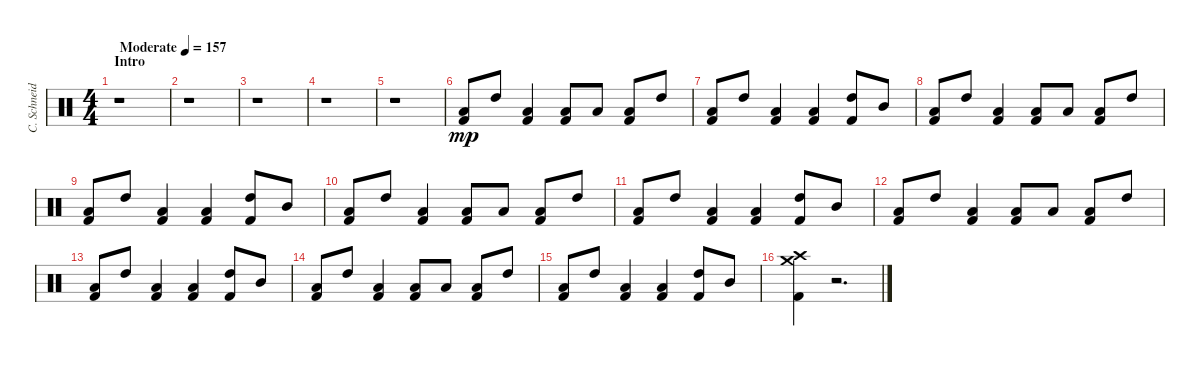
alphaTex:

\track ("C. Schneider" "C. Schneid") {instrument percussion}
\staff {score}
\articulation defaults
\ts (4 4)
\section ("" "Intro")
\tempo (157 "Moderate")
\clef neutral
\ks c
r.1{dy mp} |
r.1 |
r.1 |
r.1 |
r.1 |
("Kick (hit) 2" "Low Tom (hit)").8 "High Tom (hit)".8 ("Kick (hit) 2" "Low Tom (hit)").4 ("Kick (hit) 2" "Low Tom (hit)").8 "Low Tom (hit)".8 ("Kick (hit) 2" "Low Tom (hit)").8 "High Tom (hit)".8 |
("Kick (hit) 2" "Low Tom (hit)").8 "High Tom (hit)".8 ("Kick (hit) 2" "Low Tom (hit)").4 ("Kick (hit) 2" "Low Tom (hit)").4 ("Kick (hit) 2" "High Tom (hit)").8 "Mid Tom (hit)".8 |
("Kick (hit) 2" "Low Tom (hit)").8 "High Tom (hit)".8 ("Kick (hit) 2" "Low Tom (hit)").4 ("Kick (hit) 2" "Low Tom (hit)").8 "Low Tom (hit)".8 ("Kick (hit) 2" "Low Tom (hit)").8 "High Tom (hit)".8 |
("Kick (hit) 2" "Low Tom (hit)").8 "High Tom (hit)".8 ("Kick (hit) 2" "Low Tom (hit)").4 ("Kick (hit) 2" "Low Tom (hit)").4 ("Kick (hit) 2" "High Tom (hit)").8 "Mid Tom (hit)".8 |
("Kick (hit) 2" "Low Tom (hit)").8 "High Tom (hit)".8 ("Kick (hit) 2" "Low Tom (hit)").4 ("Kick (hit) 2" "Low Tom (hit)").8 "Low Tom (hit)".8 ("Kick (hit) 2" "Low Tom (hit)").8 "High Tom (hit)".8 |
("Kick (hit) 2" "Low Tom (hit)").8 "High Tom (hit)".8 ("Kick (hit) 2" "Low Tom (hit)").4 ("Kick (hit) 2" "Low Tom (hit)").4 ("Kick (hit) 2" "High Tom (hit)").8 "Mid Tom (hit)".8 |
("Kick (hit) 2" "Low Tom (hit)").8 "High Tom (hit)".8 ("Kick (hit) 2" "Low Tom (hit)").4 ("Kick (hit) 2" "Low Tom (hit)").8 "Low Tom (hit)".8 ("Kick (hit) 2" "Low Tom (hit)").8 "High Tom (hit)".8 |
("Kick (hit) 2" "Low Tom (hit)").8 "High Tom (hit)".8 ("Kick (hit) 2" "Low Tom (hit)").4 ("Kick (hit) 2" "Low Tom (hit)").4 ("Kick (hit) 2" "High Tom (hit)").8 "Mid Tom (hit)".8 |
("Kick (hit) 2" "Low Tom (hit)").8 "High Tom (hit)".8 ("Kick (hit) 2" "Low Tom (hit)").4 ("Kick (hit) 2" "Low Tom (hit)").8 "Low Tom (hit)".8 ("Kick (hit) 2" "Low Tom (hit)").8 "High Tom (hit)".8 |
("Kick (hit) 2" "Low Tom (hit)").8 "High Tom (hit)".8 ("Kick (hit) 2" "Low Tom (hit)").4 ("Kick (hit) 2" "Low Tom (hit)").4 ("Kick (hit) 2" "High Tom (hit)").8 "Mid Tom (hit)".8 |
("Kick (hit) 2" "Crash high (hit)" "Crash medium (hit)").4 r.2{d}
